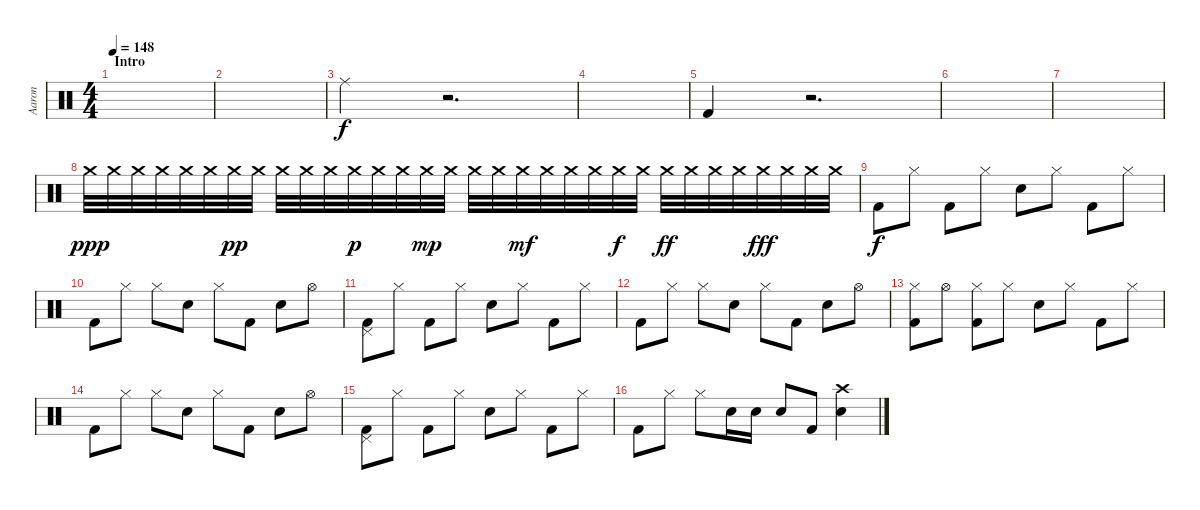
\track ("Aaron" "Aaron") {instrument percussion}
\staff {score}
\articulation defaults
\ts (4 4)
\section ("" "Intro")
\tempo 148
\clef neutral
\ks c
|
|
"Ride (middle)".4 r.2{d} |
|
"Kick (hit) 2".4 r.2{d} |
|
|
"Crash medium (hit)".32{dy ppp} "Crash medium (hit)".32 "Crash medium (hit)".32 "Crash medium (hit)".32 "Crash medium (hit)".32 "Crash medium (hit)".32 "Crash medium (hit)".32{dy pp} "Crash medium (hit)".32 "Crash medium (hit)".32 "Crash medium (hit)".32 "Crash medium (hit)".32 "Crash medium (hit)".32{dy p} "Crash medium (hit)".32 "Crash medium (hit)".32 "Crash medium (hit)".32{dy mp} "Crash medium (hit)".32 "Crash medium (hit)".32 "Crash medium (hit)".32 "Crash medium (hit)".32{dy mf} "Crash medium (hit)".32 "Crash medium (hit)".32 "Crash medium (hit)".32 "Crash medium (hit)".32{dy f} "Crash medium (hit)".32 "Crash medium (hit)".32{dy ff} "Crash medium (hit)".32 "Crash medium (hit)".32 "Crash medium (hit)".32 "Crash medium (hit)".32{dy fff} "Crash medium (hit)".32 "Crash medium (hit)".32 "Crash medium (hit)".32 |
"Kick (hit) 2".8{dy f} "Hi-Hat (closed)".8 "Kick (hit) 2".8 "Hi-Hat (closed)".8 "Snare (hit) 2".8 "Hi-Hat (closed)".8 "Kick (hit) 2".8 "Hi-Hat (closed)".8 |
"Kick (hit) 2".8 "Hi-Hat (closed)".8 "Hi-Hat (closed)".8 "Snare (hit) 2".8 "Hi-Hat (closed)".8 "Kick (hit) 2".8 "Snare (hit) 2".8 "Hi-Hat (open)".8 |
("Pedal Hi-Hat (hit)" "Kick (hit) 2").8 "Hi-Hat (closed)".8 "Kick (hit) 2".8 "Hi-Hat (closed)".8 "Snare (hit) 2".8 "Hi-Hat (closed)".8 "Kick (hit) 2".8 "Hi-Hat (closed)".8 |
"Kick (hit) 2".8 "Hi-Hat (closed)".8 "Hi-Hat (closed)".8 "Snare (hit) 2".8 "Hi-Hat (closed)".8 "Kick (hit) 2".8 "Snare (hit) 2".8 "Hi-Hat (open)".8 |
("Hi-Hat (closed)" "Kick (hit) 2").8 "Hi-Hat (open)".8 ("Hi-Hat (closed)" "Kick (hit) 2").8 "Hi-Hat (closed)".8 "Snare (hit) 2".8 "Hi-Hat (closed)".8 "Kick (hit) 2".8 "Hi-Hat (closed)".8 |
"Kick (hit) 2".8 "Hi-Hat (closed)".8 "Hi-Hat (closed)".8 "Snare (hit) 2".8 "Hi-Hat (closed)".8 "Kick (hit) 2".8 "Snare (hit) 2".8 "Hi-Hat (open)".8 |
("Pedal Hi-Hat (hit)" "Kick (hit) 2").8 "Hi-Hat (closed)".8 "Kick (hit) 2".8 "Hi-Hat (closed)".8 "Snare (hit) 2".8 "Hi-Hat (closed)".8 "Kick (hit) 2".8 "Hi-Hat (closed)".8 |
"Kick (hit) 2".8 "Hi-Hat (closed)".8 "Hi-Hat (closed)".8 "Snare (hit) 2".16 "Snare (hit) 2".16 "Snare (hit) 2".8 "Kick (hit) 2".8 ("Crash high (hit)" "Snare (hit) 2").4
